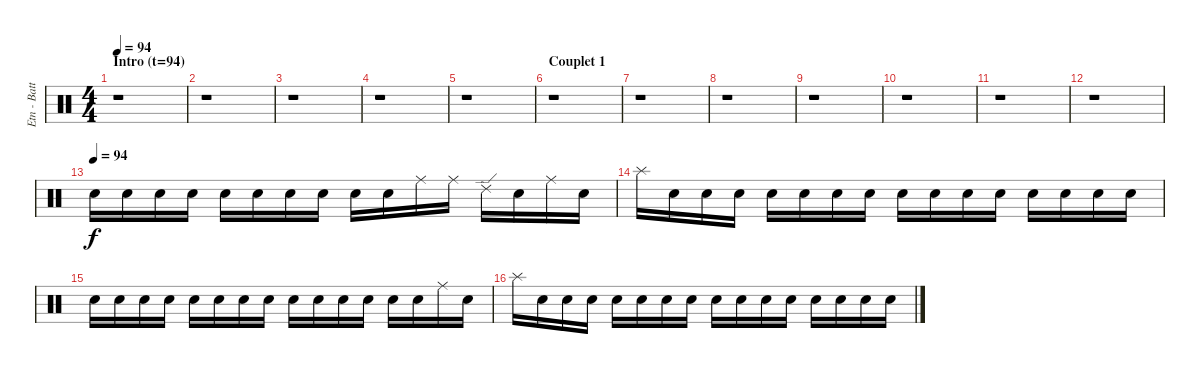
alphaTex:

\track ("Etn - Batterie" "Etn - Batt") {instrument percussion}
\staff {score}
\articulation defaults
\ts (4 4)
\section ("" "Intro (t=94)")
\tempo 94
\clef neutral
\ks c
r.1{dy f volume 16 balance 8} |
r.1 |
r.1 |
r.1 |
r.1 |
\section ("" "Couplet 1")
r.1 |
r.1 |
r.1 |
r.1 |
r.1 |
r.1 |
r.1 |
\tempo (94)
"Snare (hit)".16{volume 16 balance 8} "Snare (hit)".16 "Snare (hit)".16 "Snare (hit)".16 "Snare (hit)".16 "Snare (hit)".16 "Snare (hit)".16 "Snare (hit)".16 "Snare (hit)".16 "Snare (hit)".16 "Ride (middle)".16 "Ride (middle)".16 "Ride (edge) 2".16 "Snare (hit)".16 "Ride (middle)".16 "Snare (hit)".16 |
"Splash (hit)".16 "Snare (hit)".16 "Snare (hit)".16 "Snare (hit)".16 "Snare (hit)".16 "Snare (hit)".16 "Snare (hit)".16 "Snare (hit)".16 "Snare (hit)".16 "Snare (hit)".16 "Snare (hit)".16 "Snare (hit)".16 "Snare (hit)".16 "Snare (hit)".16 "Snare (hit)".16 "Snare (hit)".16 |
"Snare (hit)".16 "Snare (hit)".16 "Snare (hit)".16 "Snare (hit)".16 "Snare (hit)".16 "Snare (hit)".16 "Snare (hit)".16 "Snare (hit)".16 "Snare (hit)".16 "Snare (hit)".16 "Snare (hit)".16 "Snare (hit)".16 "Snare (hit)".16 "Snare (hit)".16 "Ride (middle)".16 "Snare (hit)".16 |
"Splash (hit)".16 "Snare (hit)".16 "Snare (hit)".16 "Snare (hit)".16 "Snare (hit)".16 "Snare (hit)".16 "Snare (hit)".16 "Snare (hit)".16 "Snare (hit)".16 "Snare (hit)".16 "Snare (hit)".16 "Snare (hit)".16 "Snare (hit)".16 "Snare (hit)".16 "Snare (hit)".16 "Snare (hit)".16
